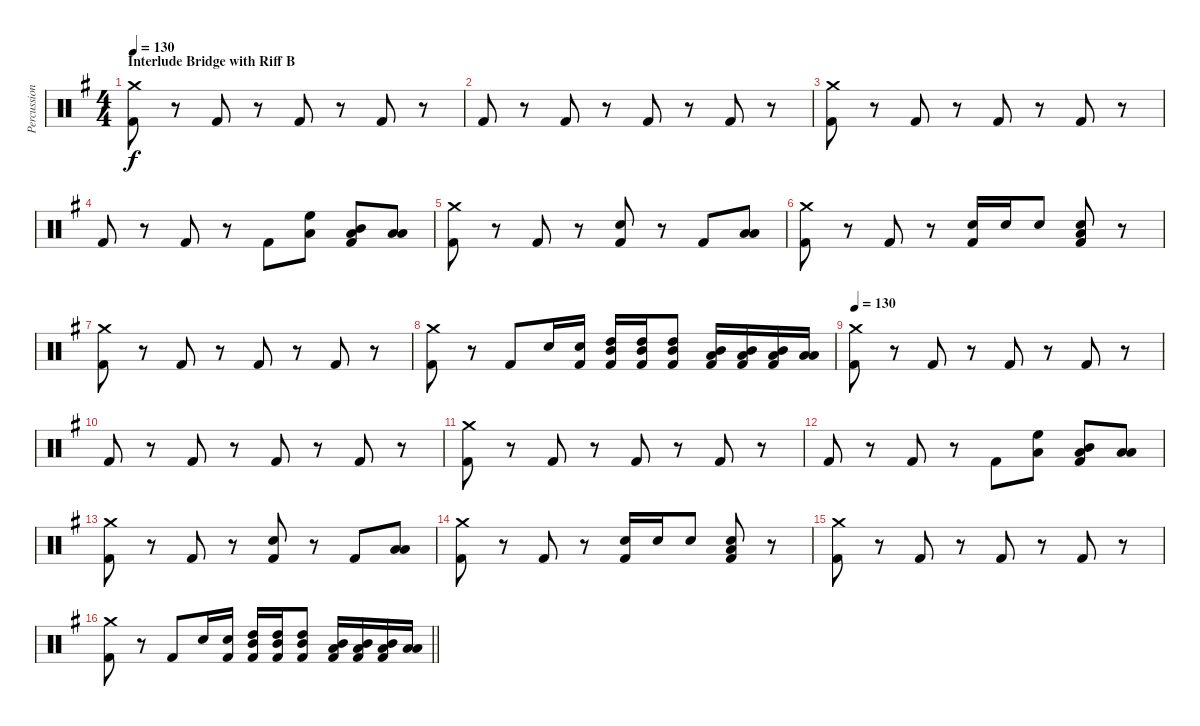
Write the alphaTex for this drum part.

\track ("Percussion" "Percussion") {instrument percussion}
\staff {score}
\articulation defaults
\ts (4 4)
\section ("" "Interlude Bridge with Riff B")
\tempo 130
\clef neutral
\ks eminor
("Crash medium (hit)" "Kick (hit) 2").8{dy f} r.8 "Kick (hit) 2".8 r.8 "Kick (hit) 2".8 r.8 "Kick (hit) 2".8 r.8 |
"Kick (hit) 2".8 r.8 "Kick (hit) 2".8 r.8 "Kick (hit) 2".8 r.8 "Kick (hit) 2".8 r.8 |
("Crash medium (hit)" "Kick (hit) 2").8 r.8 "Kick (hit) 2".8 r.8 "Kick (hit) 2".8 r.8 "Kick (hit) 2".8 r.8 |
"Kick (hit) 2".8 r.8 "Kick (hit) 2".8 r.8 "Kick (hit) 2".8 ("High Floor Tom (hit)" "Low Tom (hit)").8 ("Mid Tom (hit)" "Low Tom (hit)" "Kick (hit) 2").8 ("Low Tom (hit)" "Low Tom (hit)").8 |
("Crash medium (hit)" "Kick (hit) 2").8 r.8 "Kick (hit) 2".8 r.8 ("Snare (hit) 2" "Kick (hit) 2").8 r.8 "Kick (hit) 2".8 ("Low Tom (hit)" "Low Tom (hit)").8 |
("Crash medium (hit)" "Kick (hit) 2").8 r.8 "Kick (hit) 2".8 r.8 ("Snare (hit) 2" "Kick (hit) 2").16 "Snare (hit) 2".16 "Snare (hit) 2".8 ("Low Tom (hit)" "Snare (hit) 2" "Kick (hit) 2").8 r.8 |
("Crash medium (hit)" "Kick (hit) 2").8 r.8 "Kick (hit) 2".8 r.8 "Kick (hit) 2".8 r.8 "Kick (hit) 2".8 r.8 |
("Crash medium (hit)" "Kick (hit) 2").8 r.8 "Kick (hit) 2".8 "Snare (hit) 2".16 ("Snare (hit) 2" "Kick (hit) 2").16 ("High Tom (hit)" "Mid Tom (hit)" "Kick (hit) 2").16 ("High Tom (hit)" "Mid Tom (hit)" "Kick (hit) 2").16 ("High Tom (hit)" "Mid Tom (hit)" "Kick (hit) 2").8 ("Mid Tom (hit)" "Low Tom (hit)" "Kick (hit) 2").16 ("Mid Tom (hit)" "Low Tom (hit)" "Kick (hit) 2").16 ("Mid Tom (hit)" "Low Tom (hit)" "Kick (hit) 2").16 ("Low Tom (hit)" "Low Tom (hit)").16 |
\tempo 130
("Crash medium (hit)" "Kick (hit) 2").8 r.8 "Kick (hit) 2".8 r.8 "Kick (hit) 2".8 r.8 "Kick (hit) 2".8 r.8 |
"Kick (hit) 2".8 r.8 "Kick (hit) 2".8 r.8 "Kick (hit) 2".8 r.8 "Kick (hit) 2".8 r.8 |
("Crash medium (hit)" "Kick (hit) 2").8 r.8 "Kick (hit) 2".8 r.8 "Kick (hit) 2".8 r.8 "Kick (hit) 2".8 r.8 |
"Kick (hit) 2".8 r.8 "Kick (hit) 2".8 r.8 "Kick (hit) 2".8 ("High Floor Tom (hit)" "Low Tom (hit)").8 ("Mid Tom (hit)" "Low Tom (hit)" "Kick (hit) 2").8 ("Low Tom (hit)" "Low Tom (hit)").8 |
("Crash medium (hit)" "Kick (hit) 2").8 r.8 "Kick (hit) 2".8 r.8 ("Snare (hit) 2" "Kick (hit) 2").8 r.8 "Kick (hit) 2".8 ("Low Tom (hit)" "Low Tom (hit)").8 |
("Crash medium (hit)" "Kick (hit) 2").8 r.8 "Kick (hit) 2".8 r.8 ("Snare (hit) 2" "Kick (hit) 2").16 "Snare (hit) 2".16 "Snare (hit) 2".8 ("Low Tom (hit)" "Snare (hit) 2" "Kick (hit) 2").8 r.8 |
("Crash medium (hit)" "Kick (hit) 2").8 r.8 "Kick (hit) 2".8 r.8 "Kick (hit) 2".8 r.8 "Kick (hit) 2".8 r.8 |
\barLineRight lightlight
("Crash medium (hit)" "Kick (hit) 2").8 r.8 "Kick (hit) 2".8 "Snare (hit) 2".16 ("Snare (hit) 2" "Kick (hit) 2").16 ("High Tom (hit)" "Mid Tom (hit)" "Kick (hit) 2").16 ("High Tom (hit)" "Mid Tom (hit)" "Kick (hit) 2").16 ("High Tom (hit)" "Mid Tom (hit)" "Kick (hit) 2").8 ("Mid Tom (hit)" "Low Tom (hit)" "Kick (hit) 2").16 ("Mid Tom (hit)" "Low Tom (hit)" "Kick (hit) 2").16 ("Mid Tom (hit)" "Low Tom (hit)" "Kick (hit) 2").16 ("Low Tom (hit)" "Low Tom (hit)").16
